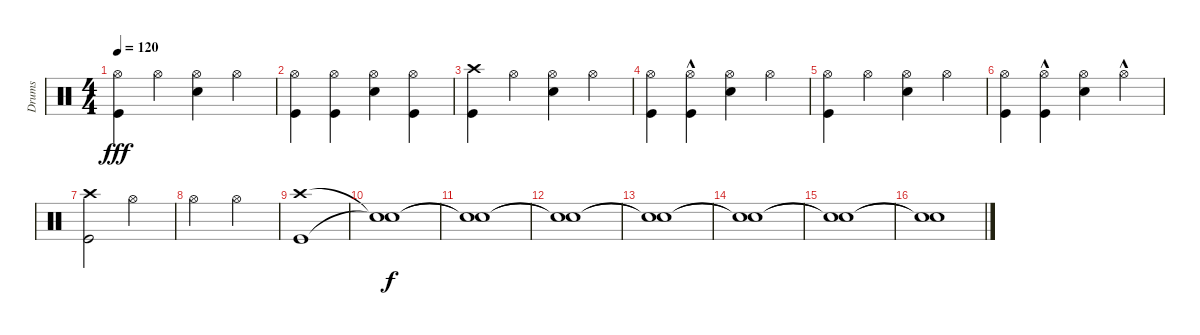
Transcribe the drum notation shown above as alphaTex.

\track ("Drums" "Drums") {instrument percussion}
\staff {score}
\articulation defaults
\ts (4 4)
\tempo 120
\clef neutral
\ks c
("Kick (hit)" "Hi-Hat (open)").4{dy fff} "Hi-Hat (open)".4 ("Snare (hit) 2" "Hi-Hat (open)").4 "Hi-Hat (open)".4 |
("Kick (hit)" "Hi-Hat (open)").4 ("Kick (hit)" "Hi-Hat (open)").4 ("Snare (hit) 2" "Hi-Hat (open)").4 ("Kick (hit)" "Hi-Hat (open)").4 |
("Kick (hit)" "Crash high (hit)").4 "Hi-Hat (open)".4 ("Snare (hit) 2" "Hi-Hat (open)").4 "Hi-Hat (open)".4 |
("Kick (hit)" "Hi-Hat (open)").4 ("Kick (hit)"{hac} "Hi-Hat (open)").4 ("Snare (hit) 2" "Hi-Hat (open)").4 "Hi-Hat (open)".4 |
("Kick (hit)" "Hi-Hat (open)").4 "Hi-Hat (open)".4 ("Snare (hit) 2" "Hi-Hat (open)").4 "Hi-Hat (open)".4 |
("Kick (hit)" "Hi-Hat (open)").4 ("Kick (hit)"{hac} "Hi-Hat (open)").4 ("Snare (hit) 2" "Hi-Hat (open)").4 "Hi-Hat (open)"{hac}.4 |
("Kick (hit)" "Crash high (hit)").2 "Hi-Hat (open)".2 |
"Hi-Hat (open)".2 "Hi-Hat (open)".2 |
("Kick (hit)" "Crash high (hit)").1 |
("Snare (hit)"{t} "Snare (hit)"{t}).1{dy f} |
("Snare (hit)"{t} "Snare (hit)"{t}).1 |
("Snare (hit)"{t} "Snare (hit)"{t}).1 |
("Snare (hit)"{t} "Snare (hit)"{t}).1 |
("Snare (hit)"{t} "Snare (hit)"{t}).1 |
("Snare (hit)"{t} "Snare (hit)"{t}).1 |
("Snare (hit)"{t} "Snare (hit)"{t}).1
